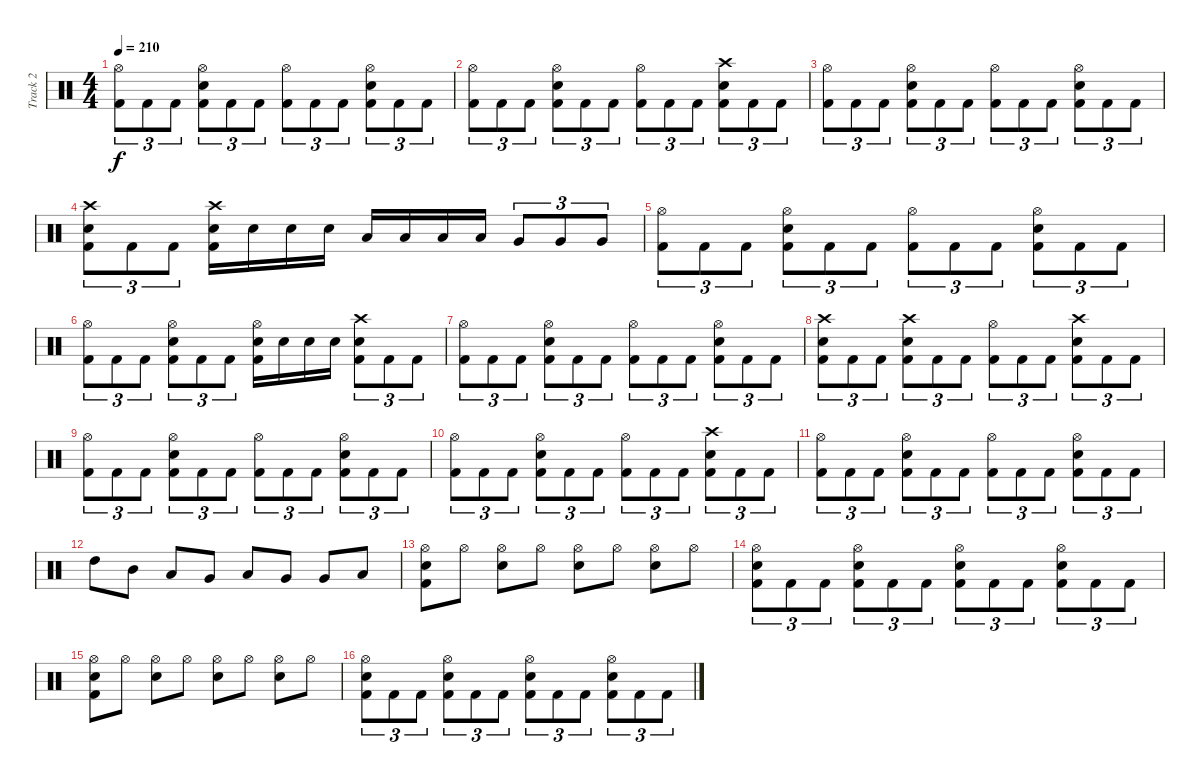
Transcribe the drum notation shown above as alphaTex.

\track ("Track 2" "Track 2") {instrument percussion}
\staff {score}
\articulation defaults
\ts (4 4)
\tempo 210
\clef neutral
\ks c
("Hi-Hat (open)" "Kick (hit) 2").8{tu (3 2) dy f} "Kick (hit) 2".8{tu (3 2)} "Kick (hit) 2".8{tu (3 2)} ("Hi-Hat (open)" "Snare (hit) 2" "Kick (hit) 2").8{tu (3 2)} "Kick (hit) 2".8{tu (3 2)} "Kick (hit) 2".8{tu (3 2)} ("Hi-Hat (open)" "Kick (hit) 2").8{tu (3 2)} "Kick (hit) 2".8{tu (3 2)} "Kick (hit) 2".8{tu (3 2)} ("Hi-Hat (open)" "Snare (hit) 2" "Kick (hit) 2").8{tu (3 2)} "Kick (hit) 2".8{tu (3 2)} "Kick (hit) 2".8{tu (3 2)} |
("Hi-Hat (open)" "Kick (hit) 2").8{tu (3 2)} "Kick (hit) 2".8{tu (3 2)} "Kick (hit) 2".8{tu (3 2)} ("Hi-Hat (open)" "Snare (hit) 2" "Kick (hit) 2").8{tu (3 2)} "Kick (hit) 2".8{tu (3 2)} "Kick (hit) 2".8{tu (3 2)} ("Hi-Hat (open)" "Kick (hit) 2").8{tu (3 2)} "Kick (hit) 2".8{tu (3 2)} "Kick (hit) 2".8{tu (3 2)} ("Crash high (hit)" "Snare (hit) 2" "Kick (hit) 2").8{tu (3 2)} "Kick (hit) 2".8{tu (3 2)} "Kick (hit) 2".8{tu (3 2)} |
("Hi-Hat (open)" "Kick (hit) 2").8{tu (3 2)} "Kick (hit) 2".8{tu (3 2)} "Kick (hit) 2".8{tu (3 2)} ("Hi-Hat (open)" "Snare (hit) 2" "Kick (hit) 2").8{tu (3 2)} "Kick (hit) 2".8{tu (3 2)} "Kick (hit) 2".8{tu (3 2)} ("Hi-Hat (open)" "Kick (hit) 2").8{tu (3 2)} "Kick (hit) 2".8{tu (3 2)} "Kick (hit) 2".8{tu (3 2)} ("Hi-Hat (open)" "Snare (hit) 2" "Kick (hit) 2").8{tu (3 2)} "Kick (hit) 2".8{tu (3 2)} "Kick (hit) 2".8{tu (3 2)} |
("Crash high (hit)" "Snare (hit) 2" "Kick (hit) 2").8{tu (3 2)} "Kick (hit) 2".8{tu (3 2)} "Kick (hit) 2".8{tu (3 2)} ("Crash high (hit)" "Snare (hit) 2" "Kick (hit) 2").16 "Snare (hit) 2".16 "Snare (hit) 2".16 "Snare (hit) 2".16 "Low Tom (hit)".16 "Low Tom (hit)".16 "Low Tom (hit)".16 "Low Tom (hit)".16 "Very Low Tom (hit)".8{tu (3 2)} "Very Low Tom (hit)".8{tu (3 2)} "Very Low Tom (hit)".8{tu (3 2)} |
("Hi-Hat (open)" "Kick (hit) 2").8{tu (3 2)} "Kick (hit) 2".8{tu (3 2)} "Kick (hit) 2".8{tu (3 2)} ("Hi-Hat (open)" "Snare (hit) 2" "Kick (hit) 2").8{tu (3 2)} "Kick (hit) 2".8{tu (3 2)} "Kick (hit) 2".8{tu (3 2)} ("Hi-Hat (open)" "Kick (hit) 2").8{tu (3 2)} "Kick (hit) 2".8{tu (3 2)} "Kick (hit) 2".8{tu (3 2)} ("Hi-Hat (open)" "Snare (hit) 2" "Kick (hit) 2").8{tu (3 2)} "Kick (hit) 2".8{tu (3 2)} "Kick (hit) 2".8{tu (3 2)} |
("Hi-Hat (open)" "Kick (hit) 2").8{tu (3 2)} "Kick (hit) 2".8{tu (3 2)} "Kick (hit) 2".8{tu (3 2)} ("Hi-Hat (open)" "Snare (hit) 2" "Kick (hit) 2").8{tu (3 2)} "Kick (hit) 2".8{tu (3 2)} "Kick (hit) 2".8{tu (3 2)} ("Hi-Hat (open)" "Snare (hit) 2" "Kick (hit) 2").16 "Snare (hit) 2".16 "Snare (hit) 2".16 "Snare (hit) 2".16 ("Crash high (hit)" "Snare (hit) 2" "Kick (hit) 2").8{tu (3 2)} "Kick (hit) 2".8{tu (3 2)} "Kick (hit) 2".8{tu (3 2)} |
("Hi-Hat (open)" "Kick (hit) 2").8{tu (3 2)} "Kick (hit) 2".8{tu (3 2)} "Kick (hit) 2".8{tu (3 2)} ("Hi-Hat (open)" "Snare (hit) 2" "Kick (hit) 2").8{tu (3 2)} "Kick (hit) 2".8{tu (3 2)} "Kick (hit) 2".8{tu (3 2)} ("Hi-Hat (open)" "Kick (hit) 2").8{tu (3 2)} "Kick (hit) 2".8{tu (3 2)} "Kick (hit) 2".8{tu (3 2)} ("Hi-Hat (open)" "Snare (hit) 2" "Kick (hit) 2").8{tu (3 2)} "Kick (hit) 2".8{tu (3 2)} "Kick (hit) 2".8{tu (3 2)} |
("Crash high (hit)" "Snare (hit) 2" "Kick (hit) 2").8{tu (3 2)} "Kick (hit) 2".8{tu (3 2)} "Kick (hit) 2".8{tu (3 2)} ("Crash high (hit)" "Snare (hit) 2" "Kick (hit) 2").8{tu (3 2)} "Kick (hit) 2".8{tu (3 2)} "Kick (hit) 2".8{tu (3 2)} ("Hi-Hat (open)" "Kick (hit) 2").8{tu (3 2)} "Kick (hit) 2".8{tu (3 2)} "Kick (hit) 2".8{tu (3 2)} ("Crash high (hit)" "Snare (hit) 2" "Kick (hit) 2").8{tu (3 2)} "Kick (hit) 2".8{tu (3 2)} "Kick (hit) 2".8{tu (3 2)} |
("Hi-Hat (open)" "Kick (hit) 2").8{tu (3 2)} "Kick (hit) 2".8{tu (3 2)} "Kick (hit) 2".8{tu (3 2)} ("Hi-Hat (open)" "Snare (hit) 2" "Kick (hit) 2").8{tu (3 2)} "Kick (hit) 2".8{tu (3 2)} "Kick (hit) 2".8{tu (3 2)} ("Hi-Hat (open)" "Kick (hit) 2").8{tu (3 2)} "Kick (hit) 2".8{tu (3 2)} "Kick (hit) 2".8{tu (3 2)} ("Hi-Hat (open)" "Snare (hit) 2" "Kick (hit) 2").8{tu (3 2)} "Kick (hit) 2".8{tu (3 2)} "Kick (hit) 2".8{tu (3 2)} |
("Hi-Hat (open)" "Kick (hit) 2").8{tu (3 2)} "Kick (hit) 2".8{tu (3 2)} "Kick (hit) 2".8{tu (3 2)} ("Hi-Hat (open)" "Snare (hit) 2" "Kick (hit) 2").8{tu (3 2)} "Kick (hit) 2".8{tu (3 2)} "Kick (hit) 2".8{tu (3 2)} ("Hi-Hat (open)" "Kick (hit) 2").8{tu (3 2)} "Kick (hit) 2".8{tu (3 2)} "Kick (hit) 2".8{tu (3 2)} ("Crash high (hit)" "Snare (hit) 2" "Kick (hit) 2").8{tu (3 2)} "Kick (hit) 2".8{tu (3 2)} "Kick (hit) 2".8{tu (3 2)} |
("Hi-Hat (open)" "Kick (hit) 2").8{tu (3 2)} "Kick (hit) 2".8{tu (3 2)} "Kick (hit) 2".8{tu (3 2)} ("Hi-Hat (open)" "Snare (hit) 2" "Kick (hit) 2").8{tu (3 2)} "Kick (hit) 2".8{tu (3 2)} "Kick (hit) 2".8{tu (3 2)} ("Hi-Hat (open)" "Kick (hit) 2").8{tu (3 2)} "Kick (hit) 2".8{tu (3 2)} "Kick (hit) 2".8{tu (3 2)} ("Hi-Hat (open)" "Snare (hit) 2" "Kick (hit) 2").8{tu (3 2)} "Kick (hit) 2".8{tu (3 2)} "Kick (hit) 2".8{tu (3 2)} |
"High Tom (hit)".8 "Mid Tom (hit)".8 "Low Tom (hit)".8 "Very Low Tom (hit)".8 "Low Tom (hit)".8 "Very Low Tom (hit)".8 "Very Low Tom (hit)".8 "Low Floor Tom (hit)".8 |
("Hi-Hat (open)" "Snare (hit) 2" "Kick (hit) 2").8 "Hi-Hat (open)".8 ("Hi-Hat (open)" "Snare (hit) 2").8 "Hi-Hat (open)".8 ("Hi-Hat (open)" "Snare (hit) 2").8 "Hi-Hat (open)".8 ("Hi-Hat (open)" "Snare (hit) 2").8 "Hi-Hat (open)".8 |
("Hi-Hat (open)" "Snare (hit) 2" "Kick (hit) 2").8{tu (3 2)} "Kick (hit) 2".8{tu (3 2)} "Kick (hit) 2".8{tu (3 2)} ("Hi-Hat (open)" "Snare (hit) 2" "Kick (hit) 2").8{tu (3 2)} "Kick (hit) 2".8{tu (3 2)} "Kick (hit) 2".8{tu (3 2)} ("Hi-Hat (open)" "Snare (hit) 2" "Kick (hit) 2").8{tu (3 2)} "Kick (hit) 2".8{tu (3 2)} "Kick (hit) 2".8{tu (3 2)} ("Hi-Hat (open)" "Snare (hit) 2" "Kick (hit) 2").8{tu (3 2)} "Kick (hit) 2".8{tu (3 2)} "Kick (hit) 2".8{tu (3 2)} |
("Hi-Hat (open)" "Snare (hit) 2" "Kick (hit) 2").8 "Hi-Hat (open)".8 ("Hi-Hat (open)" "Snare (hit) 2").8 "Hi-Hat (open)".8 ("Hi-Hat (open)" "Snare (hit) 2").8 "Hi-Hat (open)".8 ("Hi-Hat (open)" "Snare (hit) 2").8 "Hi-Hat (open)".8 |
("Hi-Hat (open)" "Snare (hit) 2" "Kick (hit) 2").8{tu (3 2)} "Kick (hit) 2".8{tu (3 2)} "Kick (hit) 2".8{tu (3 2)} ("Hi-Hat (open)" "Snare (hit) 2" "Kick (hit) 2").8{tu (3 2)} "Kick (hit) 2".8{tu (3 2)} "Kick (hit) 2".8{tu (3 2)} ("Hi-Hat (open)" "Snare (hit) 2" "Kick (hit) 2").8{tu (3 2)} "Kick (hit) 2".8{tu (3 2)} "Kick (hit) 2".8{tu (3 2)} ("Hi-Hat (open)" "Snare (hit) 2" "Kick (hit) 2").8{tu (3 2)} "Kick (hit) 2".8{tu (3 2)} "Kick (hit) 2".8{tu (3 2)}
